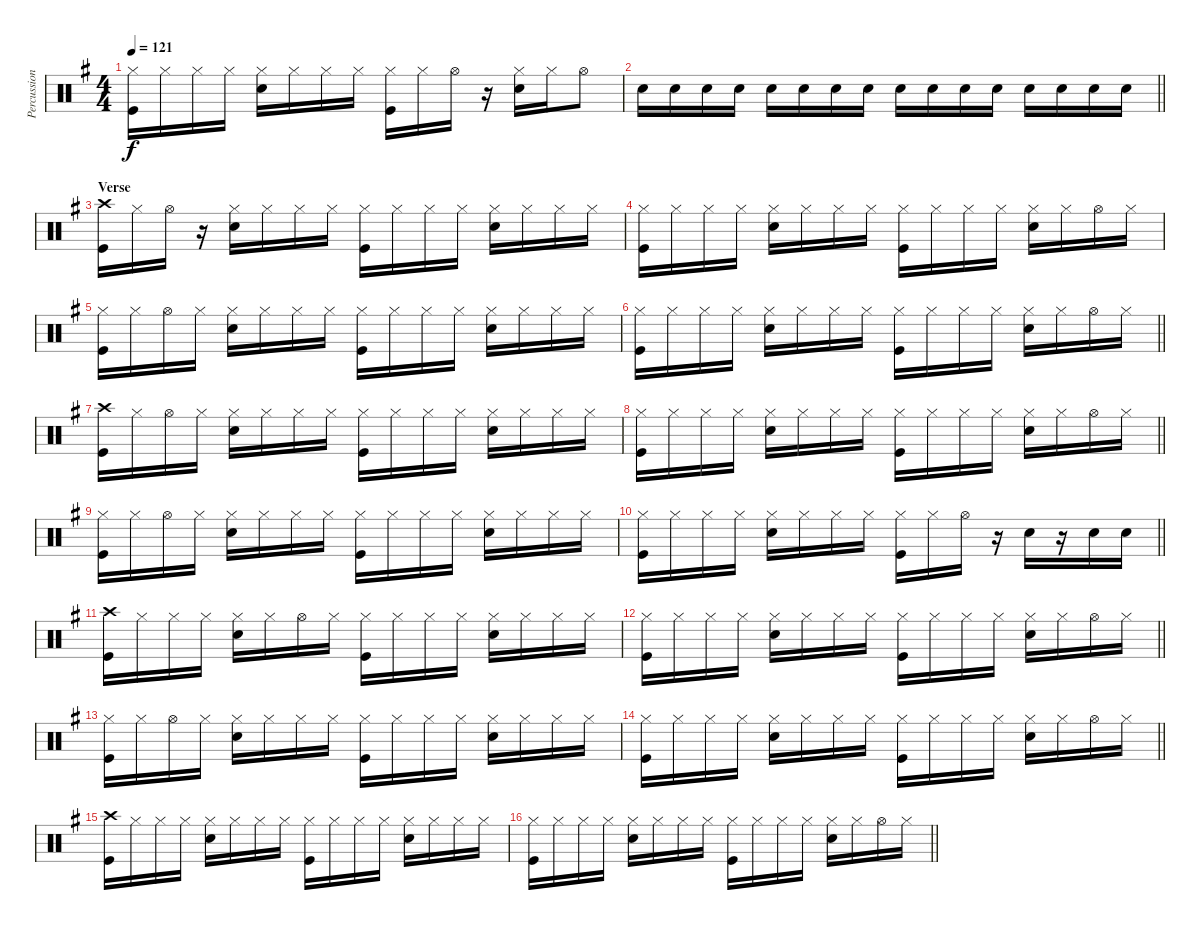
\track ("Percussion" "Percussion") {instrument percussion}
\staff {score}
\articulation defaults
\ts (4 4)
\tempo 121
\clef neutral
\ks g
("Hi-Hat (closed)" "Kick (hit)").16{dy f} "Hi-Hat (closed)".16 "Hi-Hat (closed)".16 "Hi-Hat (closed)".16 ("Hi-Hat (closed)" "Snare (hit) 2").16 "Hi-Hat (closed)".16 "Hi-Hat (closed)".16 "Hi-Hat (closed)".16 ("Hi-Hat (closed)" "Kick (hit)").16 "Hi-Hat (closed)".16 "Hi-Hat (open)".16 r.16 ("Hi-Hat (closed)" "Snare (hit) 2").16 "Hi-Hat (closed)".16 "Hi-Hat (open)".8 |
\barLineRight lightlight "Snare (hit) 2".16 "Snare (hit) 2".16 "Snare (hit) 2".16 "Snare (hit) 2".16 "Snare (hit) 2".16 "Snare (hit) 2".16 "Snare (hit) 2".16 "Snare (hit) 2".16 "Snare (hit) 2".16 "Snare (hit) 2".16 "Snare (hit) 2".16 "Snare (hit) 2".16 "Snare (hit) 2".16 "Snare (hit) 2".16 "Snare (hit) 2".16 "Snare (hit) 2".16
|
\section ("" "Verse")
("Kick (hit)" "Crash high (hit)").16 "Hi-Hat (closed)".16 "Hi-Hat (open)".16 r.16 ("Hi-Hat (closed)" "Snare (hit) 2").16 "Hi-Hat (closed)".16 "Hi-Hat (closed)".16 "Hi-Hat (closed)".16 ("Hi-Hat (closed)" "Kick (hit)").16 "Hi-Hat (closed)".16 "Hi-Hat (closed)".16 "Hi-Hat (closed)".16 ("Hi-Hat (closed)" "Snare (hit) 2").16 "Hi-Hat (closed)".16 "Hi-Hat (closed)".16 "Hi-Hat (closed)".16 |
("Hi-Hat (closed)" "Kick (hit)").16 "Hi-Hat (closed)".16 "Hi-Hat (closed)".16 "Hi-Hat (closed)".16 ("Hi-Hat (closed)" "Snare (hit) 2").16 "Hi-Hat (closed)".16 "Hi-Hat (closed)".16 "Hi-Hat (closed)".16 ("Hi-Hat (closed)" "Kick (hit)").16 "Hi-Hat (closed)".16 "Hi-Hat (closed)".16 "Hi-Hat (closed)".16 ("Hi-Hat (closed)" "Snare (hit) 2").16 "Hi-Hat (closed)".16 "Hi-Hat (open)".16 "Hi-Hat (closed)".16 |
("Hi-Hat (closed)" "Kick (hit)").16 "Hi-Hat (closed)".16 "Hi-Hat (open)".16 "Hi-Hat (closed)".16 ("Hi-Hat (closed)" "Snare (hit) 2").16 "Hi-Hat (closed)".16 "Hi-Hat (closed)".16 "Hi-Hat (closed)".16 ("Hi-Hat (closed)" "Kick (hit)").16 "Hi-Hat (closed)".16 "Hi-Hat (closed)".16 "Hi-Hat (closed)".16 ("Hi-Hat (closed)" "Snare (hit) 2").16 "Hi-Hat (closed)".16 "Hi-Hat (closed)".16 "Hi-Hat (closed)".16 |
\barLineRight lightlight
("Hi-Hat (closed)" "Kick (hit)").16 "Hi-Hat (closed)".16 "Hi-Hat (closed)".16 "Hi-Hat (closed)".16 ("Hi-Hat (closed)" "Snare (hit) 2").16 "Hi-Hat (closed)".16 "Hi-Hat (closed)".16 "Hi-Hat (closed)".16 ("Hi-Hat (closed)" "Kick (hit)").16 "Hi-Hat (closed)".16 "Hi-Hat (closed)".16 "Hi-Hat (closed)".16 ("Hi-Hat (closed)" "Snare (hit) 2").16 "Hi-Hat (closed)".16 "Hi-Hat (open)".16 "Hi-Hat (closed)".16 |
("Crash high (hit)" "Kick (hit)").16 "Hi-Hat (closed)".16 "Hi-Hat (open)".16 "Hi-Hat (closed)".16 ("Hi-Hat (closed)" "Snare (hit) 2").16 "Hi-Hat (closed)".16 "Hi-Hat (closed)".16 "Hi-Hat (closed)".16 ("Hi-Hat (closed)" "Kick (hit)").16 "Hi-Hat (closed)".16 "Hi-Hat (closed)".16 "Hi-Hat (closed)".16 ("Hi-Hat (closed)" "Snare (hit) 2").16 "Hi-Hat (closed)".16 "Hi-Hat (closed)".16 "Hi-Hat (closed)".16 |
\barLineRight lightlight
("Hi-Hat (closed)" "Kick (hit)").16 "Hi-Hat (closed)".16 "Hi-Hat (closed)".16 "Hi-Hat (closed)".16 ("Hi-Hat (closed)" "Snare (hit) 2").16 "Hi-Hat (closed)".16 "Hi-Hat (closed)".16 "Hi-Hat (closed)".16 ("Hi-Hat (closed)" "Kick (hit)").16 "Hi-Hat (closed)".16 "Hi-Hat (closed)".16 "Hi-Hat (closed)".16 ("Hi-Hat (closed)" "Snare (hit) 2").16 "Hi-Hat (closed)".16 "Hi-Hat (open)".16 "Hi-Hat (closed)".16 |
("Hi-Hat (closed)" "Kick (hit)").16 "Hi-Hat (closed)".16 "Hi-Hat (open)".16 "Hi-Hat (closed)".16 ("Hi-Hat (closed)" "Snare (hit) 2").16 "Hi-Hat (closed)".16 "Hi-Hat (closed)".16 "Hi-Hat (closed)".16 ("Hi-Hat (closed)" "Kick (hit)").16 "Hi-Hat (closed)".16 "Hi-Hat (closed)".16 "Hi-Hat (closed)".16 ("Hi-Hat (closed)" "Snare (hit) 2").16 "Hi-Hat (closed)".16 "Hi-Hat (closed)".16 "Hi-Hat (closed)".16 |
\barLineRight lightlight
("Hi-Hat (closed)" "Kick (hit)").16 "Hi-Hat (closed)".16 "Hi-Hat (closed)".16 "Hi-Hat (closed)".16 ("Hi-Hat (closed)" "Snare (hit) 2").16 "Hi-Hat (closed)".16 "Hi-Hat (closed)".16 "Hi-Hat (closed)".16 ("Hi-Hat (closed)" "Kick (hit)").16 "Hi-Hat (closed)".16 "Hi-Hat (open)".16 r.16 "Snare (hit) 2".16 r.16 "Snare (hit) 2".16 "Snare (hit) 2".16 |
("Crash high (hit)" "Kick (hit)").16 "Hi-Hat (closed)".16 "Hi-Hat (closed)".16 "Hi-Hat (closed)".16 ("Hi-Hat (closed)" "Snare (hit) 2").16 "Hi-Hat (closed)".16 "Hi-Hat (open)".16 "Hi-Hat (closed)".16 ("Hi-Hat (closed)" "Kick (hit)").16 "Hi-Hat (closed)".16 "Hi-Hat (closed)".16 "Hi-Hat (closed)".16 ("Hi-Hat (closed)" "Snare (hit) 2").16 "Hi-Hat (closed)".16 "Hi-Hat (closed)".16 "Hi-Hat (closed)".16 |
\barLineRight lightlight
("Hi-Hat (closed)" "Kick (hit)").16 "Hi-Hat (closed)".16 "Hi-Hat (closed)".16 "Hi-Hat (closed)".16 ("Hi-Hat (closed)" "Snare (hit) 2").16 "Hi-Hat (closed)".16 "Hi-Hat (closed)".16 "Hi-Hat (closed)".16 ("Hi-Hat (closed)" "Kick (hit)").16 "Hi-Hat (closed)".16 "Hi-Hat (closed)".16 "Hi-Hat (closed)".16 ("Hi-Hat (closed)" "Snare (hit) 2").16 "Hi-Hat (closed)".16 "Hi-Hat (open)".16 "Hi-Hat (closed)".16 |
("Hi-Hat (closed)" "Kick (hit)").16 "Hi-Hat (closed)".16 "Hi-Hat (open)".16 "Hi-Hat (closed)".16 ("Hi-Hat (closed)" "Snare (hit) 2").16 "Hi-Hat (closed)".16 "Hi-Hat (closed)".16 "Hi-Hat (closed)".16 ("Hi-Hat (closed)" "Kick (hit)").16 "Hi-Hat (closed)".16 "Hi-Hat (closed)".16 "Hi-Hat (closed)".16 ("Hi-Hat (closed)" "Snare (hit) 2").16 "Hi-Hat (closed)".16 "Hi-Hat (closed)".16 "Hi-Hat (closed)".16 |
\barLineRight lightlight
("Hi-Hat (closed)" "Kick (hit)").16 "Hi-Hat (closed)".16 "Hi-Hat (closed)".16 "Hi-Hat (closed)".16 ("Hi-Hat (closed)" "Snare (hit) 2").16 "Hi-Hat (closed)".16 "Hi-Hat (closed)".16 "Hi-Hat (closed)".16 ("Hi-Hat (closed)" "Kick (hit)").16 "Hi-Hat (closed)".16 "Hi-Hat (closed)".16 "Hi-Hat (closed)".16 ("Hi-Hat (closed)" "Snare (hit) 2").16 "Hi-Hat (closed)".16 "Hi-Hat (open)".16 "Hi-Hat (closed)".16 |
("Crash high (hit)" "Kick (hit)").16 "Hi-Hat (closed)".16 "Hi-Hat (closed)".16 "Hi-Hat (closed)".16 ("Hi-Hat (closed)" "Snare (hit) 2").16 "Hi-Hat (closed)".16 "Hi-Hat (closed)".16 "Hi-Hat (closed)".16 ("Hi-Hat (closed)" "Kick (hit)").16 "Hi-Hat (closed)".16 "Hi-Hat (closed)".16 "Hi-Hat (closed)".16 ("Hi-Hat (closed)" "Snare (hit) 2").16 "Hi-Hat (closed)".16 "Hi-Hat (closed)".16 "Hi-Hat (closed)".16 |
\barLineRight lightlight
("Hi-Hat (closed)" "Kick (hit)").16 "Hi-Hat (closed)".16 "Hi-Hat (closed)".16 "Hi-Hat (closed)".16 ("Hi-Hat (closed)" "Snare (hit) 2").16 "Hi-Hat (closed)".16 "Hi-Hat (closed)".16 "Hi-Hat (closed)".16 ("Hi-Hat (closed)" "Kick (hit)").16 "Hi-Hat (closed)".16 "Hi-Hat (closed)".16 "Hi-Hat (closed)".16 ("Hi-Hat (closed)" "Snare (hit) 2").16 "Hi-Hat (closed)".16 "Hi-Hat (open)".16 "Hi-Hat (closed)".16
